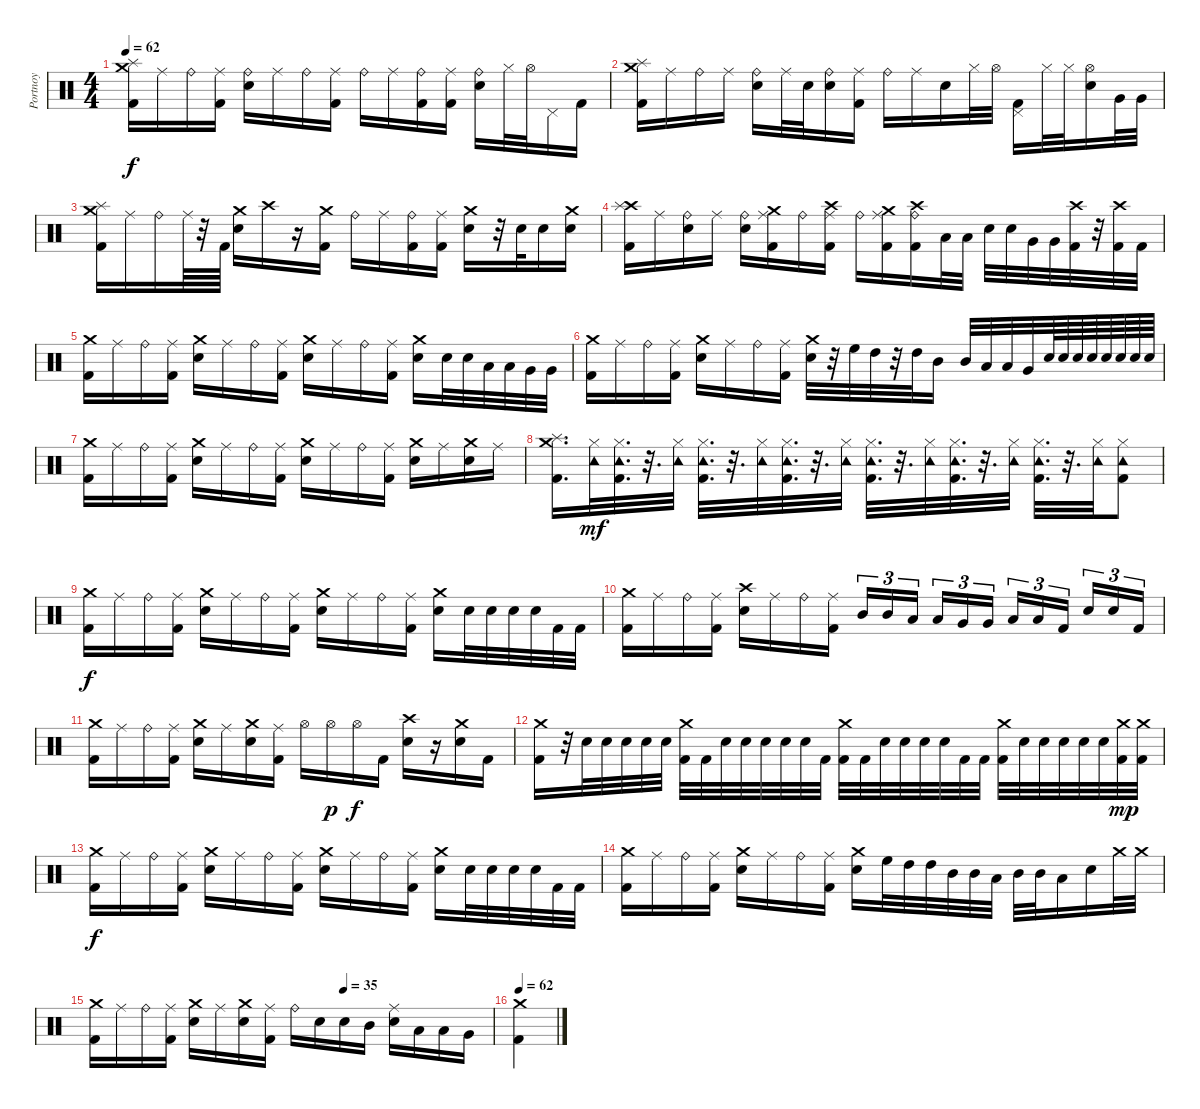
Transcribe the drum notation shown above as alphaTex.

\track ("Portnoy" "Portnoy") {instrument percussion}
\staff {score}
\articulation defaults
\ts (4 4)
\tempo 62
\clef neutral
\ks c
("Crash medium (hit)" "Splash (hit)" "Kick (hit) 2").16{dy f} "Ride (middle)".16 "Ride (bell)".16 ("Ride (middle)" "Kick (hit) 2").16 ("Ride (bell)" "Electric Snare (hit)").16 "Ride (middle)".16 "Ride (bell)".16 ("Ride (middle)" "Kick (hit) 2").16 "Ride (bell)".16 "Ride (middle)".16 ("Ride (bell)" "Kick (hit) 2").16 ("Ride (middle)" "Kick (hit) 2").16 ("Ride (bell)" "Electric Snare (hit)").16 "Hi-Hat (closed)".32 "Hi-Hat (open)".32 "Pedal Hi-Hat (hit)".16 "Kick (hit) 2".16 |
("Crash medium (hit)" "Splash (hit)" "Kick (hit) 2").16 "Ride (middle)".16 "Ride (bell)".16 "Ride (middle)".16 ("Ride (bell)" "Electric Snare (hit)").16 "Ride (middle)".32 "Electric Snare (hit)".32 ("Ride (bell)" "Electric Snare (hit)").16 ("Ride (middle)" "Kick (hit) 2").16 "Ride (bell)".16 "Ride (middle)".16 "Electric Snare (hit)".16 "Hi-Hat (closed)".32 "Hi-Hat (open)".32 ("Pedal Hi-Hat (hit)" "Kick (hit) 2").16 "Hi-Hat (closed)".32 "Hi-Hat (closed)".32 ("Hi-Hat (open)" "Electric Snare (hit)").16 "Very Low Tom (hit)".32 "Very Low Tom (hit)".32 |
("Crash medium (hit)" "Splash (hit)" "Kick (hit) 2").16 "Ride (middle)".16 "Ride (bell)".16 "Ride (middle)".64 r.32 "Kick (hit) 2".64 ("Crash medium (hit)" "Electric Snare (hit)").16 "Crash high (hit)".16 r.16 ("Crash medium (hit)" "Kick (hit) 2").16 "Ride (bell)".16 "Ride (middle)".16 ("Ride (bell)" "Kick (hit) 2").16 ("Ride (middle)" "Kick (hit) 2").16 ("Crash medium (hit)" "Electric Snare (hit)").16 r.32 "Electric Snare (hit)".32 "Electric Snare (hit)".16 ("Crash medium (hit)" "Snare (hit) 2").16 |
("Crash high (hit)" "Splash (hit)" "Kick (hit) 2").16 "Ride (middle)".16 ("Ride (bell)" "Electric Snare (hit)").16 "Ride (middle)".16 ("Ride (bell)" "Electric Snare (hit)").16 ("Ride (middle)" "Crash medium (hit)" "Kick (hit) 2").16 "Ride (bell)".16 ("Ride (middle)" "Crash high (hit)" "Kick (hit) 2").16 "Ride (bell)".16 ("Ride (middle)" "Crash medium (hit)" "Kick (hit) 2").16 ("Ride (bell)" "Crash high (hit)" "Kick (hit) 2").16 "Low Tom (hit)".32 "Low Tom (hit)".32 "Electric Snare (hit)".32 "Electric Snare (hit)".32 "Very Low Tom (hit)".32 "Very Low Tom (hit)".32 ("Crash high (hit)" "Kick (hit) 2").32 r.32 ("Crash high (hit)" "Kick (hit) 2").32 "Kick (hit) 2".32 |
("Crash medium (hit)" "Kick (hit) 2").16 "Ride (middle)".16 "Ride (bell)".16 ("Ride (middle)" "Kick (hit) 2").16 ("Crash medium (hit)" "Electric Snare (hit)").16 "Ride (middle)".16 "Ride (bell)".16 ("Ride (middle)" "Kick (hit) 2").16 ("Crash medium (hit)" "Electric Snare (hit)").16 "Ride (middle)".16 "Ride (bell)".16 ("Ride (middle)" "Kick (hit) 2").16 ("Crash medium (hit)" "Electric Snare (hit)").16 "Electric Snare (hit)".32 "Electric Snare (hit)".32 "Low Tom (hit)".32 "Low Tom (hit)".32 "Very Low Tom (hit)".32 "Very Low Tom (hit)".32 |
("Crash medium (hit)" "Kick (hit) 2").16 "Ride (middle)".16 "Ride (bell)".16 ("Ride (middle)" "Kick (hit) 2").16 ("Crash medium (hit)" "Electric Snare (hit)").16 "Ride (middle)".16 "Ride (bell)".16 ("Ride (middle)" "Kick (hit) 2").16 ("Crash medium (hit)" "Electric Snare (hit)").32 r.32 "High Floor Tom (hit)".32 "High Tom (hit)".32 r.32 "High Tom (hit)".32 "Mid Tom (hit)".16 "Mid Tom (hit)".32 "Low Tom (hit)".32 "Low Tom (hit)".32 "Very Low Tom (hit)".32 "Electric Snare (hit)".64 "Electric Snare (hit)".64 "Electric Snare (hit)".64 "Electric Snare (hit)".64 "Electric Snare (hit)".64 "Electric Snare (hit)".64 "Electric Snare (hit)".64 "Electric Snare (hit)".64 |
("Crash medium (hit)" "Kick (hit) 2").16 "Ride (middle)".16 "Ride (bell)".16 ("Ride (middle)" "Kick (hit) 2").16 ("Crash medium (hit)" "Electric Snare (hit)").16 "Ride (middle)".16 "Ride (bell)".16 ("Ride (middle)" "Kick (hit) 2").16 ("Crash medium (hit)" "Electric Snare (hit)").16 "Ride (middle)".16 "Ride (bell)".16 ("Ride (middle)" "Kick (hit) 2").16 ("Crash medium (hit)" "Electric Snare (hit)").16 "Ride (middle)".16 ("Crash medium (hit)" "Electric Snare (hit)").16 "Ride (middle)".16 |
("Crash medium (hit)" "Splash (hit)" "Kick (hit) 2").16{d} ("Hi-Hat (closed)" "Tambourine (hit)").32{dy mf} ("Hi-Hat (closed)" "Kick (hit) 2" "Tambourine (hit)").32{d} r.32{d} ("Hi-Hat (closed)" "Tambourine (hit)").32 ("Hi-Hat (closed)" "Kick (hit) 2" "Tambourine (hit)").32{d} r.32{d} ("Hi-Hat (closed)" "Tambourine (hit)").32 ("Hi-Hat (closed)" "Kick (hit) 2" "Tambourine (hit)").32{d} r.32{d} ("Hi-Hat (closed)" "Tambourine (hit)").32 ("Hi-Hat (closed)" "Kick (hit) 2" "Tambourine (hit)").32{d} r.32{d} ("Hi-Hat (closed)" "Tambourine (hit)").32 ("Hi-Hat (closed)" "Kick (hit) 2" "Tambourine (hit)").32{d} r.32{d} ("Hi-Hat (closed)" "Tambourine (hit)").32 ("Hi-Hat (closed)" "Kick (hit) 2" "Tambourine (hit)").32{d} r.32{d} ("Hi-Hat (closed)" "Tambourine (hit)").32 ("Hi-Hat (closed)" "Kick (hit) 2" "Tambourine (hit)").8 |
("Crash medium (hit)" "Kick (hit) 2").16{dy f} "Ride (middle)".16 "Ride (bell)".16 ("Ride (middle)" "Kick (hit) 2").16 ("Crash medium (hit)" "Electric Snare (hit)").16 "Ride (middle)".16 "Ride (bell)".16 ("Ride (middle)" "Kick (hit) 2").16 ("Crash medium (hit)" "Electric Snare (hit)").16 "Ride (middle)".16 "Ride (bell)".16 ("Ride (middle)" "Kick (hit) 2").16 ("Crash medium (hit)" "Electric Snare (hit)").16 "Electric Snare (hit)".32 "Electric Snare (hit)".32 "Electric Snare (hit)".32 "Electric Snare (hit)".32 "Kick (hit) 2".32 "Kick (hit) 2".32 |
("Crash medium (hit)" "Kick (hit) 2").16 "Ride (middle)".16 "Ride (bell)".16 ("Ride (middle)" "Kick (hit) 2").16 ("Crash high (hit)" "Electric Snare (hit)").16 "Ride (middle)".16 "Ride (bell)".16 ("Ride (middle)" "Kick (hit) 2").16 "Mid Tom (hit)".16{tu (3 2)} "Mid Tom (hit)".16{tu (3 2)} "Low Tom (hit)".16{tu (3 2) beam splitsecondary} "Low Tom (hit)".16{tu (3 2)} "Very Low Tom (hit)".16{tu (3 2)} "Very Low Tom (hit)".16{tu (3 2)} "Low Floor Tom (hit)".16{tu (3 2)} "Low Floor Tom (hit)".16{tu (3 2)} "Kick (hit) 2".16{tu (3 2) beam splitsecondary} "Electric Snare (hit)".16{tu (3 2)} "Electric Snare (hit)".16{tu (3 2)} "Kick (hit) 2".16{tu (3 2)} |
("Crash medium (hit)" "Kick (hit) 2").16 "Ride (middle)".16 "Ride (bell)".16 ("Ride (middle)" "Kick (hit) 2").16 ("Crash medium (hit)" "Electric Snare (hit)").16 "Ride (middle)".16 ("Crash medium (hit)" "Electric Snare (hit)").16 ("Ride (middle)" "Kick (hit) 2").16 "Hi-Hat (open)".16 "Hi-Hat (open)".16{dy p} "Hi-Hat (open)".16{dy f} "Kick (hit) 2".16 ("Crash high (hit)" "Electric Snare (hit)").16 r.16 ("Crash medium (hit)" "Electric Snare (hit)").16 "Kick (hit) 2".16 |
("Crash medium (hit)" "Kick (hit) 2").16 r.32 "Electric Snare (hit)".32 "Electric Snare (hit)".32 "Electric Snare (hit)".32 "Electric Snare (hit)".32 "Electric Snare (hit)".32 ("Crash medium (hit)" "Kick (hit) 2").32 "Kick (hit) 2".32 "Electric Snare (hit)".32 "Electric Snare (hit)".32 "Electric Snare (hit)".32 "Electric Snare (hit)".32 "Electric Snare (hit)".32 "Kick (hit) 2".32 ("Crash medium (hit)" "Kick (hit) 2").32 "Kick (hit) 2".32 "Electric Snare (hit)".32 "Electric Snare (hit)".32 "Electric Snare (hit)".32 "Electric Snare (hit)".32 "Kick (hit) 2".32 "Kick (hit) 2".32 ("Crash medium (hit)" "Kick (hit) 2").32 "Electric Snare (hit)".32 "Electric Snare (hit)".32 "Electric Snare (hit)".32 "Electric Snare (hit)".32 "Electric Snare (hit)".32 ("Crash medium (hit)" "Kick (hit) 2").32{dy mp} ("Crash medium (hit)" "Kick (hit) 2").32 |
("Crash medium (hit)" "Kick (hit) 2").16{dy f} "Ride (middle)".16 "Ride (bell)".16 ("Ride (middle)" "Kick (hit) 2").16 ("Crash medium (hit)" "Electric Snare (hit)").16 "Ride (middle)".16 "Ride (bell)".16 ("Ride (middle)" "Kick (hit) 2").16 ("Crash medium (hit)" "Electric Snare (hit)").16 "Ride (middle)".16 "Ride (bell)".16 ("Ride (middle)" "Kick (hit) 2").16 ("Crash medium (hit)" "Electric Snare (hit)").16 "Electric Snare (hit)".32 "Electric Snare (hit)".32 "Electric Snare (hit)".32 "Electric Snare (hit)".32 "Kick (hit) 2".32 "Kick (hit) 2".32 |
("Crash medium (hit)" "Kick (hit) 2").16 "Ride (middle)".16 "Ride (bell)".16 ("Ride (middle)" "Kick (hit) 2").16 ("Crash medium (hit)" "Electric Snare (hit)").16 "Ride (middle)".16 "Ride (bell)".16 ("Ride (middle)" "Kick (hit) 2").16 ("Crash medium (hit)" "Electric Snare (hit)").16 "High Floor Tom (hit)".32 "High Tom (hit)".32 "High Tom (hit)".32 "Mid Tom (hit)".32 "Mid Tom (hit)".32 "Low Tom (hit)".32 "Mid Tom (hit)".32 "Mid Tom (hit)".32 "Low Tom (hit)".16 "Electric Snare (hit)".16 "Crash medium (hit)".32 "Crash medium (hit)".32 |
\tempo (35 0.625)
("Crash medium (hit)" "Kick (hit) 2").16 "Ride (middle)".16 "Ride (bell)".16 ("Ride (middle)" "Kick (hit) 2").16 ("Crash medium (hit)" "Electric Snare (hit)").16 "Ride (middle)".16 ("Crash medium (hit)" "Electric Snare (hit)").16 ("Ride (middle)" "Kick (hit) 2").16 "Ride (bell)".16 "Electric Snare (hit)".16 "Electric Snare (hit)".16 "Mid Tom (hit)".16 ("Ride (middle)" "Electric Snare (hit)").16 "Low Tom (hit)".16 "Low Tom (hit)".16 "Very Low Tom (hit)".16 |
\tempo 62
("Crash medium (hit)" "Kick (hit) 2").4
